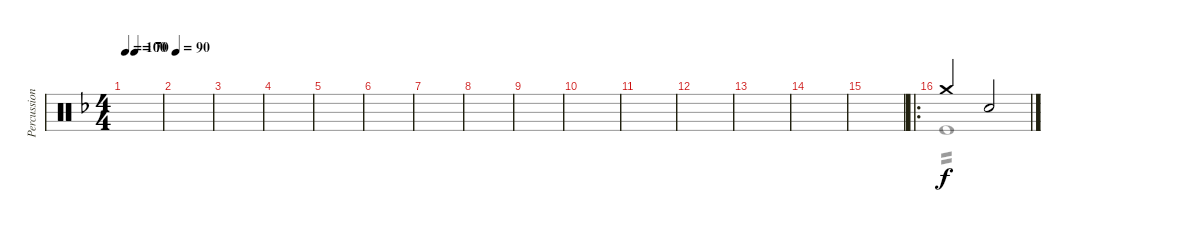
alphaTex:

\track ("Percussion" "Percussion") {instrument percussion}
\staff {score}
\articulation defaults
\voice
\ts (4 4)
\tempo 100
\tempo (70 0.25)
\clef neutral
\ks dminor
|
\tempo 90
|
|
|
|
|
|
|
|
|
|
|
|
|
|
\ro "Crash medium (hit)".2 "Electric Snare (hit)".2
\voice
\clef neutral
\ks dminor
|
|
|
|
|
|
|
|
|
|
|
|
|
|
|
"Kick (hit)".1{tp 2}
